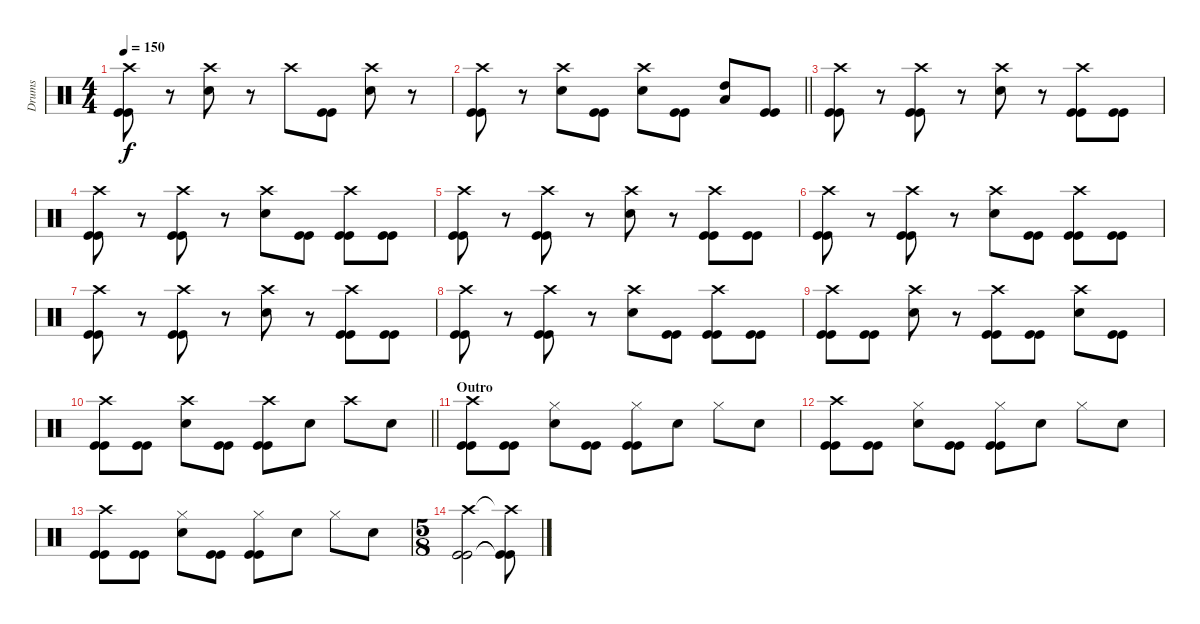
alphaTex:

\track ("Drums" "Drums") {instrument percussion}
\staff {score}
\articulation defaults
\ts (4 4)
\tempo 150
\clef neutral
\ks c
("Crash high (hit)" "Kick (hit)" "Kick (hit)").8{dy f} r.8 ("Crash high (hit)" "Snare (hit) 2").8 r.8 "Crash high (hit)".8 ("Kick (hit)" "Kick (hit)").8 ("Crash high (hit)" "Snare (hit) 2").8 r.8 |
\barLineRight lightlight
("Crash high (hit)" "Kick (hit)" "Kick (hit)").8 r.8 ("Crash high (hit)" "Snare (hit) 2").8 ("Kick (hit)" "Kick (hit)").8 ("Crash high (hit)" "Snare (hit) 2").8 ("Kick (hit)" "Kick (hit)").8 ("Low Floor Tom (hit)" "High Tom (hit)").8 ("Kick (hit)" "Kick (hit)").8 |
("Crash high (hit)" "Kick (hit)" "Kick (hit)").8 r.8 ("Crash high (hit)" "Kick (hit)" "Kick (hit)").8 r.8 ("Crash high (hit)" "Snare (hit) 2").8 r.8 ("Crash high (hit)" "Kick (hit)" "Kick (hit)").8 ("Kick (hit)" "Kick (hit)").8 |
("Crash high (hit)" "Kick (hit)" "Kick (hit)").8 r.8 ("Crash high (hit)" "Kick (hit)" "Kick (hit)").8 r.8 ("Crash high (hit)" "Snare (hit) 2").8 ("Kick (hit)" "Kick (hit)").8 ("Crash high (hit)" "Kick (hit)" "Kick (hit)").8 ("Kick (hit)" "Kick (hit)").8 |
("Crash high (hit)" "Kick (hit)" "Kick (hit)").8 r.8 ("Crash high (hit)" "Kick (hit)" "Kick (hit)").8 r.8 ("Crash high (hit)" "Snare (hit) 2").8 r.8 ("Crash high (hit)" "Kick (hit)" "Kick (hit)").8 ("Kick (hit)" "Kick (hit)").8 |
("Crash high (hit)" "Kick (hit)" "Kick (hit)").8 r.8 ("Crash high (hit)" "Kick (hit)" "Kick (hit)").8 r.8 ("Crash high (hit)" "Snare (hit) 2").8 ("Kick (hit)" "Kick (hit)").8 ("Crash high (hit)" "Kick (hit)" "Kick (hit)").8 ("Kick (hit)" "Kick (hit)").8 |
("Crash high (hit)" "Kick (hit)" "Kick (hit)").8 r.8 ("Crash high (hit)" "Kick (hit)" "Kick (hit)").8 r.8 ("Crash high (hit)" "Snare (hit) 2").8 r.8 ("Crash high (hit)" "Kick (hit)" "Kick (hit)").8 ("Kick (hit)" "Kick (hit)").8 |
("Crash high (hit)" "Kick (hit)" "Kick (hit)").8 r.8 ("Crash high (hit)" "Kick (hit)" "Kick (hit)").8 r.8 ("Crash high (hit)" "Snare (hit) 2").8 ("Kick (hit)" "Kick (hit)").8 ("Crash high (hit)" "Kick (hit)" "Kick (hit)").8 ("Kick (hit)" "Kick (hit)").8 |
("Crash high (hit)" "Kick (hit)" "Kick (hit)").8 ("Kick (hit)" "Kick (hit)").8 ("Crash high (hit)" "Snare (hit) 2").8 r.8 ("Crash high (hit)" "Kick (hit)" "Kick (hit)").8 ("Kick (hit)" "Kick (hit)").8 ("Crash high (hit)" "Snare (hit) 2").8 ("Kick (hit)" "Kick (hit)").8 |
\barLineRight lightlight
("Crash high (hit)" "Kick (hit)" "Kick (hit)").8 ("Kick (hit)" "Kick (hit)").8 ("Crash high (hit)" "Snare (hit) 2").8 ("Kick (hit)" "Kick (hit)").8 ("Crash high (hit)" "Kick (hit)" "Kick (hit)").8 "Snare (hit) 2".8 "Crash high (hit)".8 "Snare (hit) 2".8 |
\section ("" "Outro")
("Crash high (hit)" "Kick (hit)" "Kick (hit)").8 ("Kick (hit)" "Kick (hit)").8 ("Hi-Hat (closed)" "Snare (hit) 2").8 ("Kick (hit)" "Kick (hit)").8 ("Hi-Hat (closed)" "Kick (hit)" "Kick (hit)").8 "Snare (hit) 2".8 "Hi-Hat (closed)".8 "Snare (hit) 2".8 |
("Crash high (hit)" "Kick (hit)" "Kick (hit)").8 ("Kick (hit)" "Kick (hit)").8 ("Hi-Hat (closed)" "Snare (hit) 2").8 ("Kick (hit)" "Kick (hit)").8 ("Hi-Hat (closed)" "Kick (hit)" "Kick (hit)").8 "Snare (hit) 2".8 "Hi-Hat (closed)".8 "Snare (hit) 2".8 |
("Crash high (hit)" "Kick (hit)" "Kick (hit)").8 ("Kick (hit)" "Kick (hit)").8 ("Hi-Hat (closed)" "Snare (hit) 2").8 ("Kick (hit)" "Kick (hit)").8 ("Hi-Hat (closed)" "Kick (hit)" "Kick (hit)").8 "Snare (hit) 2".8 "Hi-Hat (closed)".8 "Snare (hit) 2".8 |
\ts (5 8)
("Crash high (hit)" "Kick (hit)" "Kick (hit)").2 ("Crash high (hit)"{t} "Kick (hit)"{t} "Kick (hit)"{t}).8
